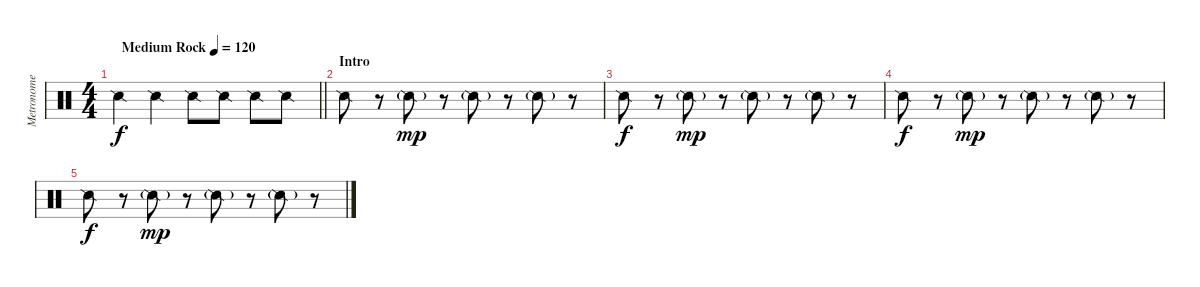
\track ("Metronome" "Metronome") {mute instrument percussion}
\staff {score}
\articulation defaults
\ts (4 4)
\tempo (120 "Medium Rock")
\clef neutral
\barLineRight lightlight
\ks c "Snare (side stick) 2".4{dy f} "Snare (side stick) 2".4 "Snare (side stick) 2".8 "Snare (side stick) 2".8 "Snare (side stick) 2".8 "Snare (side stick) 2".8
|
\section ("" "Intro")
"Snare (side stick) 2".8 r.8 "Snare (side stick) 2"{g}.8{dy mp} r.8 "Snare (side stick) 2"{g}.8 r.8 "Snare (side stick) 2"{g}.8 r.8 |
"Snare (side stick) 2".8{dy f} r.8 "Snare (side stick) 2"{g}.8{dy mp} r.8 "Snare (side stick) 2"{g}.8 r.8 "Snare (side stick) 2"{g}.8 r.8 |
"Snare (side stick) 2".8{dy f} r.8 "Snare (side stick) 2"{g}.8{dy mp} r.8 "Snare (side stick) 2"{g}.8 r.8 "Snare (side stick) 2"{g}.8 r.8 |
"Snare (side stick) 2".8{dy f} r.8 "Snare (side stick) 2"{g}.8{dy mp} r.8 "Snare (side stick) 2"{g}.8 r.8 "Snare (side stick) 2"{g}.8 r.8
